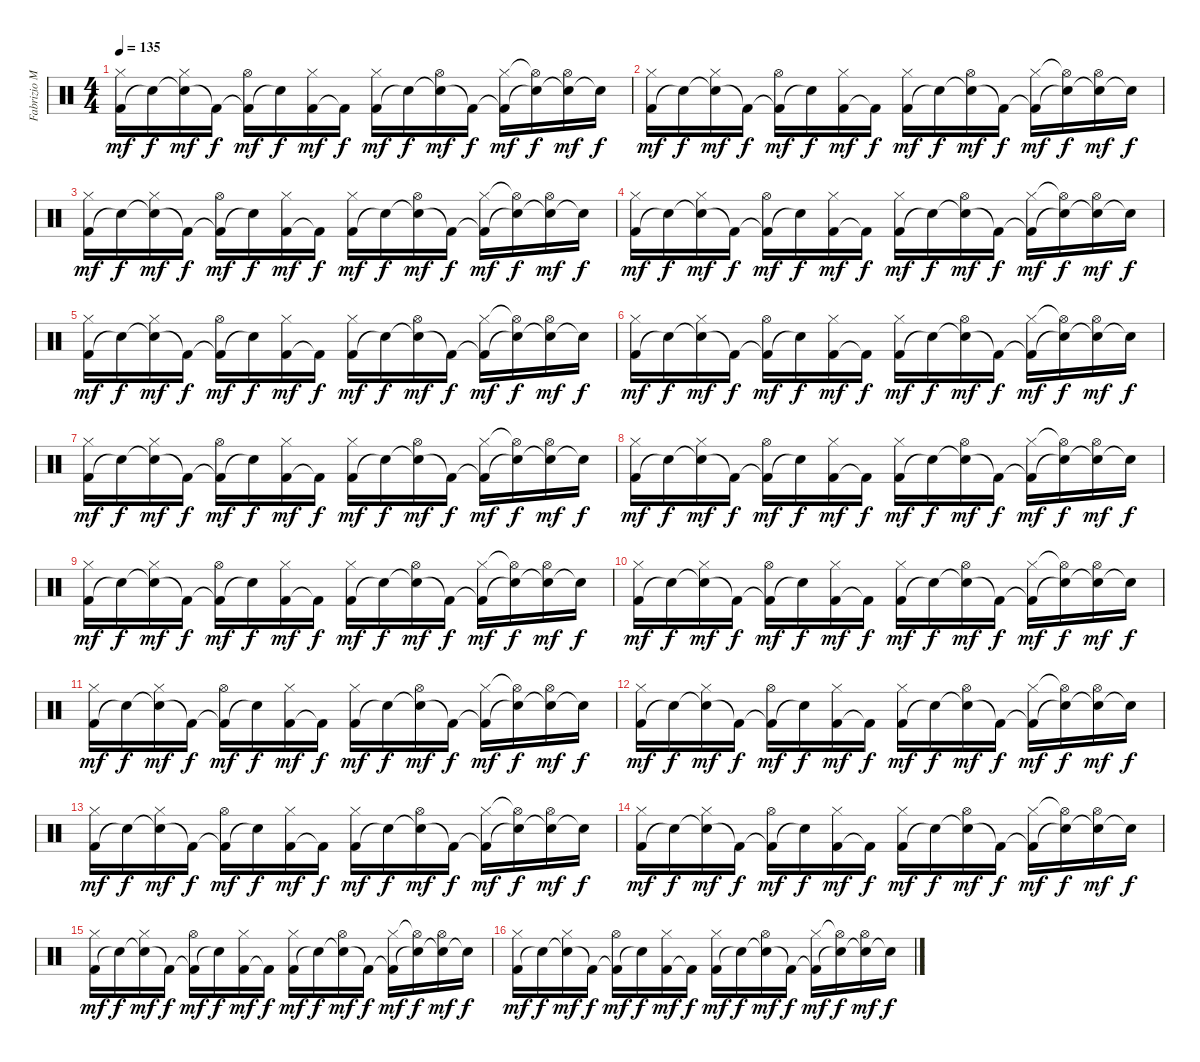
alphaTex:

\track ("Fabrizio Moretti" "Fabrizio M") {instrument percussion}
\staff {score}
\articulation defaults
\ts (4 4)
\tempo 135
\clef neutral
\ks c
("Kick (hit) 2" "Hi-Hat (closed)").16{dy mf} "Snare (hit)"{t}.16{dy f} ("Snare (hit)"{t} "Hi-Hat (closed)").16{dy mf} "Kick (hit) 2"{t}.16{dy f} ("Kick (hit) 2"{t} "Hi-Hat (open)").16{dy mf} "Snare (hit)"{t}.16{dy f} ("Kick (hit) 2" "Hi-Hat (closed)").16{dy mf} "Kick (hit) 2"{t}.16{dy f} ("Kick (hit) 2" "Hi-Hat (closed)").16{dy mf} "Snare (hit)"{t}.16{dy f} ("Snare (hit)"{t} "Hi-Hat (open)").16{dy mf} "Kick (hit) 2"{t}.16{dy f} ("Kick (hit) 2"{t} "Hi-Hat (closed)").16{dy mf} ("Snare (hit)"{t} "Hi-Hat (open)"{t}).16{dy f} ("Snare (hit)"{t} "Hi-Hat (open)").16{dy mf} "Snare (hit)"{t}.16{dy f} |
("Kick (hit) 2" "Hi-Hat (closed)").16{dy mf} "Snare (hit)"{t}.16{dy f} ("Snare (hit)"{t} "Hi-Hat (closed)").16{dy mf} "Kick (hit) 2"{t}.16{dy f} ("Kick (hit) 2"{t} "Hi-Hat (open)").16{dy mf} "Snare (hit)"{t}.16{dy f} ("Kick (hit) 2" "Hi-Hat (closed)").16{dy mf} "Kick (hit) 2"{t}.16{dy f} ("Kick (hit) 2" "Hi-Hat (closed)").16{dy mf} "Snare (hit)"{t}.16{dy f} ("Snare (hit)"{t} "Hi-Hat (open)").16{dy mf} "Kick (hit) 2"{t}.16{dy f} ("Kick (hit) 2"{t} "Hi-Hat (closed)").16{dy mf} ("Snare (hit)"{t} "Hi-Hat (open)"{t}).16{dy f} ("Snare (hit)"{t} "Hi-Hat (open)").16{dy mf} "Snare (hit)"{t}.16{dy f} |
("Kick (hit) 2" "Hi-Hat (closed)").16{dy mf} "Snare (hit)"{t}.16{dy f} ("Snare (hit)"{t} "Hi-Hat (closed)").16{dy mf} "Kick (hit) 2"{t}.16{dy f} ("Kick (hit) 2"{t} "Hi-Hat (open)").16{dy mf} "Snare (hit)"{t}.16{dy f} ("Kick (hit) 2" "Hi-Hat (closed)").16{dy mf} "Kick (hit) 2"{t}.16{dy f} ("Kick (hit) 2" "Hi-Hat (closed)").16{dy mf} "Snare (hit)"{t}.16{dy f} ("Snare (hit)"{t} "Hi-Hat (open)").16{dy mf} "Kick (hit) 2"{t}.16{dy f} ("Kick (hit) 2"{t} "Hi-Hat (closed)").16{dy mf} ("Snare (hit)"{t} "Hi-Hat (open)"{t}).16{dy f} ("Snare (hit)"{t} "Hi-Hat (open)").16{dy mf} "Snare (hit)"{t}.16{dy f} |
("Kick (hit) 2" "Hi-Hat (closed)").16{dy mf} "Snare (hit)"{t}.16{dy f} ("Snare (hit)"{t} "Hi-Hat (closed)").16{dy mf} "Kick (hit) 2"{t}.16{dy f} ("Kick (hit) 2"{t} "Hi-Hat (open)").16{dy mf} "Snare (hit)"{t}.16{dy f} ("Kick (hit) 2" "Hi-Hat (closed)").16{dy mf} "Kick (hit) 2"{t}.16{dy f} ("Kick (hit) 2" "Hi-Hat (closed)").16{dy mf} "Snare (hit)"{t}.16{dy f} ("Snare (hit)"{t} "Hi-Hat (open)").16{dy mf} "Kick (hit) 2"{t}.16{dy f} ("Kick (hit) 2"{t} "Hi-Hat (closed)").16{dy mf} ("Snare (hit)"{t} "Hi-Hat (open)"{t}).16{dy f} ("Snare (hit)"{t} "Hi-Hat (open)").16{dy mf} "Snare (hit)"{t}.16{dy f} |
("Kick (hit) 2" "Hi-Hat (closed)").16{dy mf} "Snare (hit)"{t}.16{dy f} ("Snare (hit)"{t} "Hi-Hat (closed)").16{dy mf} "Kick (hit) 2"{t}.16{dy f} ("Kick (hit) 2"{t} "Hi-Hat (open)").16{dy mf} "Snare (hit)"{t}.16{dy f} ("Kick (hit) 2" "Hi-Hat (closed)").16{dy mf} "Kick (hit) 2"{t}.16{dy f} ("Kick (hit) 2" "Hi-Hat (closed)").16{dy mf} "Snare (hit)"{t}.16{dy f} ("Snare (hit)"{t} "Hi-Hat (open)").16{dy mf} "Kick (hit) 2"{t}.16{dy f} ("Kick (hit) 2"{t} "Hi-Hat (closed)").16{dy mf} ("Snare (hit)"{t} "Hi-Hat (open)"{t}).16{dy f} ("Snare (hit)"{t} "Hi-Hat (open)").16{dy mf} "Snare (hit)"{t}.16{dy f} |
("Kick (hit) 2" "Hi-Hat (closed)").16{dy mf} "Snare (hit)"{t}.16{dy f} ("Snare (hit)"{t} "Hi-Hat (closed)").16{dy mf} "Kick (hit) 2"{t}.16{dy f} ("Kick (hit) 2"{t} "Hi-Hat (open)").16{dy mf} "Snare (hit)"{t}.16{dy f} ("Kick (hit) 2" "Hi-Hat (closed)").16{dy mf} "Kick (hit) 2"{t}.16{dy f} ("Kick (hit) 2" "Hi-Hat (closed)").16{dy mf} "Snare (hit)"{t}.16{dy f} ("Snare (hit)"{t} "Hi-Hat (open)").16{dy mf} "Kick (hit) 2"{t}.16{dy f} ("Kick (hit) 2"{t} "Hi-Hat (closed)").16{dy mf} ("Snare (hit)"{t} "Hi-Hat (open)"{t}).16{dy f} ("Snare (hit)"{t} "Hi-Hat (open)").16{dy mf} "Snare (hit)"{t}.16{dy f} |
("Kick (hit) 2" "Hi-Hat (closed)").16{dy mf} "Snare (hit)"{t}.16{dy f} ("Snare (hit)"{t} "Hi-Hat (closed)").16{dy mf} "Kick (hit) 2"{t}.16{dy f} ("Kick (hit) 2"{t} "Hi-Hat (open)").16{dy mf} "Snare (hit)"{t}.16{dy f} ("Kick (hit) 2" "Hi-Hat (closed)").16{dy mf} "Kick (hit) 2"{t}.16{dy f} ("Kick (hit) 2" "Hi-Hat (closed)").16{dy mf} "Snare (hit)"{t}.16{dy f} ("Snare (hit)"{t} "Hi-Hat (open)").16{dy mf} "Kick (hit) 2"{t}.16{dy f} ("Kick (hit) 2"{t} "Hi-Hat (closed)").16{dy mf} ("Snare (hit)"{t} "Hi-Hat (open)"{t}).16{dy f} ("Snare (hit)"{t} "Hi-Hat (open)").16{dy mf} "Snare (hit)"{t}.16{dy f} |
("Kick (hit) 2" "Hi-Hat (closed)").16{dy mf} "Snare (hit)"{t}.16{dy f} ("Snare (hit)"{t} "Hi-Hat (closed)").16{dy mf} "Kick (hit) 2"{t}.16{dy f} ("Kick (hit) 2"{t} "Hi-Hat (open)").16{dy mf} "Snare (hit)"{t}.16{dy f} ("Kick (hit) 2" "Hi-Hat (closed)").16{dy mf} "Kick (hit) 2"{t}.16{dy f} ("Kick (hit) 2" "Hi-Hat (closed)").16{dy mf} "Snare (hit)"{t}.16{dy f} ("Snare (hit)"{t} "Hi-Hat (open)").16{dy mf} "Kick (hit) 2"{t}.16{dy f} ("Kick (hit) 2"{t} "Hi-Hat (closed)").16{dy mf} ("Snare (hit)"{t} "Hi-Hat (open)"{t}).16{dy f} ("Snare (hit)"{t} "Hi-Hat (open)").16{dy mf} "Snare (hit)"{t}.16{dy f} |
("Kick (hit) 2" "Hi-Hat (closed)").16{dy mf} "Snare (hit)"{t}.16{dy f} ("Snare (hit)"{t} "Hi-Hat (closed)").16{dy mf} "Kick (hit) 2"{t}.16{dy f} ("Kick (hit) 2"{t} "Hi-Hat (open)").16{dy mf} "Snare (hit)"{t}.16{dy f} ("Kick (hit) 2" "Hi-Hat (closed)").16{dy mf} "Kick (hit) 2"{t}.16{dy f} ("Kick (hit) 2" "Hi-Hat (closed)").16{dy mf} "Snare (hit)"{t}.16{dy f} ("Snare (hit)"{t} "Hi-Hat (open)").16{dy mf} "Kick (hit) 2"{t}.16{dy f} ("Kick (hit) 2"{t} "Hi-Hat (closed)").16{dy mf} ("Snare (hit)"{t} "Hi-Hat (open)"{t}).16{dy f} ("Snare (hit)"{t} "Hi-Hat (open)").16{dy mf} "Snare (hit)"{t}.16{dy f} |
("Kick (hit) 2" "Hi-Hat (closed)").16{dy mf} "Snare (hit)"{t}.16{dy f} ("Snare (hit)"{t} "Hi-Hat (closed)").16{dy mf} "Kick (hit) 2"{t}.16{dy f} ("Kick (hit) 2"{t} "Hi-Hat (open)").16{dy mf} "Snare (hit)"{t}.16{dy f} ("Kick (hit) 2" "Hi-Hat (closed)").16{dy mf} "Kick (hit) 2"{t}.16{dy f} ("Kick (hit) 2" "Hi-Hat (closed)").16{dy mf} "Snare (hit)"{t}.16{dy f} ("Snare (hit)"{t} "Hi-Hat (open)").16{dy mf} "Kick (hit) 2"{t}.16{dy f} ("Kick (hit) 2"{t} "Hi-Hat (closed)").16{dy mf} ("Snare (hit)"{t} "Hi-Hat (open)"{t}).16{dy f} ("Snare (hit)"{t} "Hi-Hat (open)").16{dy mf} "Snare (hit)"{t}.16{dy f} |
("Kick (hit) 2" "Hi-Hat (closed)").16{dy mf} "Snare (hit)"{t}.16{dy f} ("Snare (hit)"{t} "Hi-Hat (closed)").16{dy mf} "Kick (hit) 2"{t}.16{dy f} ("Kick (hit) 2"{t} "Hi-Hat (open)").16{dy mf} "Snare (hit)"{t}.16{dy f} ("Kick (hit) 2" "Hi-Hat (closed)").16{dy mf} "Kick (hit) 2"{t}.16{dy f} ("Kick (hit) 2" "Hi-Hat (closed)").16{dy mf} "Snare (hit)"{t}.16{dy f} ("Snare (hit)"{t} "Hi-Hat (open)").16{dy mf} "Kick (hit) 2"{t}.16{dy f} ("Kick (hit) 2"{t} "Hi-Hat (closed)").16{dy mf} ("Snare (hit)"{t} "Hi-Hat (open)"{t}).16{dy f} ("Snare (hit)"{t} "Hi-Hat (open)").16{dy mf} "Snare (hit)"{t}.16{dy f} |
("Kick (hit) 2" "Hi-Hat (closed)").16{dy mf} "Snare (hit)"{t}.16{dy f} ("Snare (hit)"{t} "Hi-Hat (closed)").16{dy mf} "Kick (hit) 2"{t}.16{dy f} ("Kick (hit) 2"{t} "Hi-Hat (open)").16{dy mf} "Snare (hit)"{t}.16{dy f} ("Kick (hit) 2" "Hi-Hat (closed)").16{dy mf} "Kick (hit) 2"{t}.16{dy f} ("Kick (hit) 2" "Hi-Hat (closed)").16{dy mf} "Snare (hit)"{t}.16{dy f} ("Snare (hit)"{t} "Hi-Hat (open)").16{dy mf} "Kick (hit) 2"{t}.16{dy f} ("Kick (hit) 2"{t} "Hi-Hat (closed)").16{dy mf} ("Snare (hit)"{t} "Hi-Hat (open)"{t}).16{dy f} ("Snare (hit)"{t} "Hi-Hat (open)").16{dy mf} "Snare (hit)"{t}.16{dy f} |
("Kick (hit) 2" "Hi-Hat (closed)").16{dy mf} "Snare (hit)"{t}.16{dy f} ("Snare (hit)"{t} "Hi-Hat (closed)").16{dy mf} "Kick (hit) 2"{t}.16{dy f} ("Kick (hit) 2"{t} "Hi-Hat (open)").16{dy mf} "Snare (hit)"{t}.16{dy f} ("Kick (hit) 2" "Hi-Hat (closed)").16{dy mf} "Kick (hit) 2"{t}.16{dy f} ("Kick (hit) 2" "Hi-Hat (closed)").16{dy mf} "Snare (hit)"{t}.16{dy f} ("Snare (hit)"{t} "Hi-Hat (open)").16{dy mf} "Kick (hit) 2"{t}.16{dy f} ("Kick (hit) 2"{t} "Hi-Hat (closed)").16{dy mf} ("Snare (hit)"{t} "Hi-Hat (open)"{t}).16{dy f} ("Snare (hit)"{t} "Hi-Hat (open)").16{dy mf} "Snare (hit)"{t}.16{dy f} |
("Kick (hit) 2" "Hi-Hat (closed)").16{dy mf} "Snare (hit)"{t}.16{dy f} ("Snare (hit)"{t} "Hi-Hat (closed)").16{dy mf} "Kick (hit) 2"{t}.16{dy f} ("Kick (hit) 2"{t} "Hi-Hat (open)").16{dy mf} "Snare (hit)"{t}.16{dy f} ("Kick (hit) 2" "Hi-Hat (closed)").16{dy mf} "Kick (hit) 2"{t}.16{dy f} ("Kick (hit) 2" "Hi-Hat (closed)").16{dy mf} "Snare (hit)"{t}.16{dy f} ("Snare (hit)"{t} "Hi-Hat (open)").16{dy mf} "Kick (hit) 2"{t}.16{dy f} ("Kick (hit) 2"{t} "Hi-Hat (closed)").16{dy mf} ("Snare (hit)"{t} "Hi-Hat (open)"{t}).16{dy f} ("Snare (hit)"{t} "Hi-Hat (open)").16{dy mf} "Snare (hit)"{t}.16{dy f} |
("Kick (hit) 2" "Hi-Hat (closed)").16{dy mf} "Snare (hit)"{t}.16{dy f} ("Snare (hit)"{t} "Hi-Hat (closed)").16{dy mf} "Kick (hit) 2"{t}.16{dy f} ("Kick (hit) 2"{t} "Hi-Hat (open)").16{dy mf} "Snare (hit)"{t}.16{dy f} ("Kick (hit) 2" "Hi-Hat (closed)").16{dy mf} "Kick (hit) 2"{t}.16{dy f} ("Kick (hit) 2" "Hi-Hat (closed)").16{dy mf} "Snare (hit)"{t}.16{dy f} ("Snare (hit)"{t} "Hi-Hat (open)").16{dy mf} "Kick (hit) 2"{t}.16{dy f} ("Kick (hit) 2"{t} "Hi-Hat (closed)").16{dy mf} ("Snare (hit)"{t} "Hi-Hat (open)"{t}).16{dy f} ("Snare (hit)"{t} "Hi-Hat (open)").16{dy mf} "Snare (hit)"{t}.16{dy f} |
("Kick (hit) 2" "Hi-Hat (closed)").16{dy mf} "Snare (hit)"{t}.16{dy f} ("Snare (hit)"{t} "Hi-Hat (closed)").16{dy mf} "Kick (hit) 2"{t}.16{dy f} ("Kick (hit) 2"{t} "Hi-Hat (open)").16{dy mf} "Snare (hit)"{t}.16{dy f} ("Kick (hit) 2" "Hi-Hat (closed)").16{dy mf} "Kick (hit) 2"{t}.16{dy f} ("Kick (hit) 2" "Hi-Hat (closed)").16{dy mf} "Snare (hit)"{t}.16{dy f} ("Snare (hit)"{t} "Hi-Hat (open)").16{dy mf} "Kick (hit) 2"{t}.16{dy f} ("Kick (hit) 2"{t} "Hi-Hat (closed)").16{dy mf} ("Snare (hit)"{t} "Hi-Hat (open)"{t}).16{dy f} ("Snare (hit)"{t} "Hi-Hat (open)").16{dy mf} "Snare (hit)"{t}.16{dy f}
